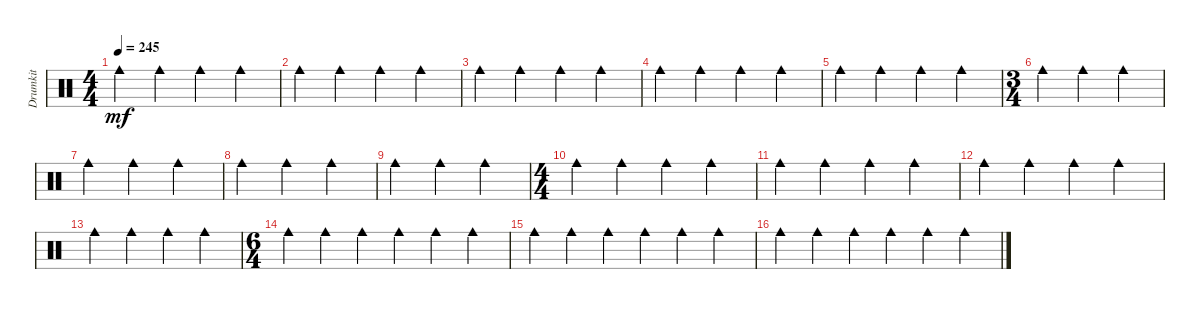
\track ("Drumkit" "Drumkit") {instrument percussion}
\staff {score}
\articulation defaults
\ts (4 4)
\tempo 245
\clef neutral
\ks c "Cowbell medium (hit)".4{dy mf} "Cowbell medium (hit)".4 "Cowbell medium (hit)".4 "Cowbell medium (hit)".4
|
"Cowbell medium (hit)".4 "Cowbell medium (hit)".4 "Cowbell medium (hit)".4 "Cowbell medium (hit)".4 |
"Cowbell medium (hit)".4 "Cowbell medium (hit)".4 "Cowbell medium (hit)".4 "Cowbell medium (hit)".4 |
"Cowbell medium (hit)".4 "Cowbell medium (hit)".4 "Cowbell medium (hit)".4 "Cowbell medium (hit)".4 |
"Cowbell medium (hit)".4 "Cowbell medium (hit)".4 "Cowbell medium (hit)".4 "Cowbell medium (hit)".4 |
\ts (3 4)
"Cowbell medium (hit)".4 "Cowbell medium (hit)".4 "Cowbell medium (hit)".4 |
"Cowbell medium (hit)".4 "Cowbell medium (hit)".4 "Cowbell medium (hit)".4 |
"Cowbell medium (hit)".4 "Cowbell medium (hit)".4 "Cowbell medium (hit)".4 |
"Cowbell medium (hit)".4 "Cowbell medium (hit)".4 "Cowbell medium (hit)".4 |
\ts (4 4)
"Cowbell medium (hit)".4 "Cowbell medium (hit)".4 "Cowbell medium (hit)".4 "Cowbell medium (hit)".4 |
"Cowbell medium (hit)".4 "Cowbell medium (hit)".4 "Cowbell medium (hit)".4 "Cowbell medium (hit)".4 |
"Cowbell medium (hit)".4 "Cowbell medium (hit)".4 "Cowbell medium (hit)".4 "Cowbell medium (hit)".4 |
"Cowbell medium (hit)".4 "Cowbell medium (hit)".4 "Cowbell medium (hit)".4 "Cowbell medium (hit)".4 |
\ts (6 4)
"Cowbell medium (hit)".4 "Cowbell medium (hit)".4 "Cowbell medium (hit)".4 "Cowbell medium (hit)".4 "Cowbell medium (hit)".4 "Cowbell medium (hit)".4 |
"Cowbell medium (hit)".4 "Cowbell medium (hit)".4 "Cowbell medium (hit)".4 "Cowbell medium (hit)".4 "Cowbell medium (hit)".4 "Cowbell medium (hit)".4 |
"Cowbell medium (hit)".4 "Cowbell medium (hit)".4 "Cowbell medium (hit)".4 "Cowbell medium (hit)".4 "Cowbell medium (hit)".4 "Cowbell medium (hit)".4
